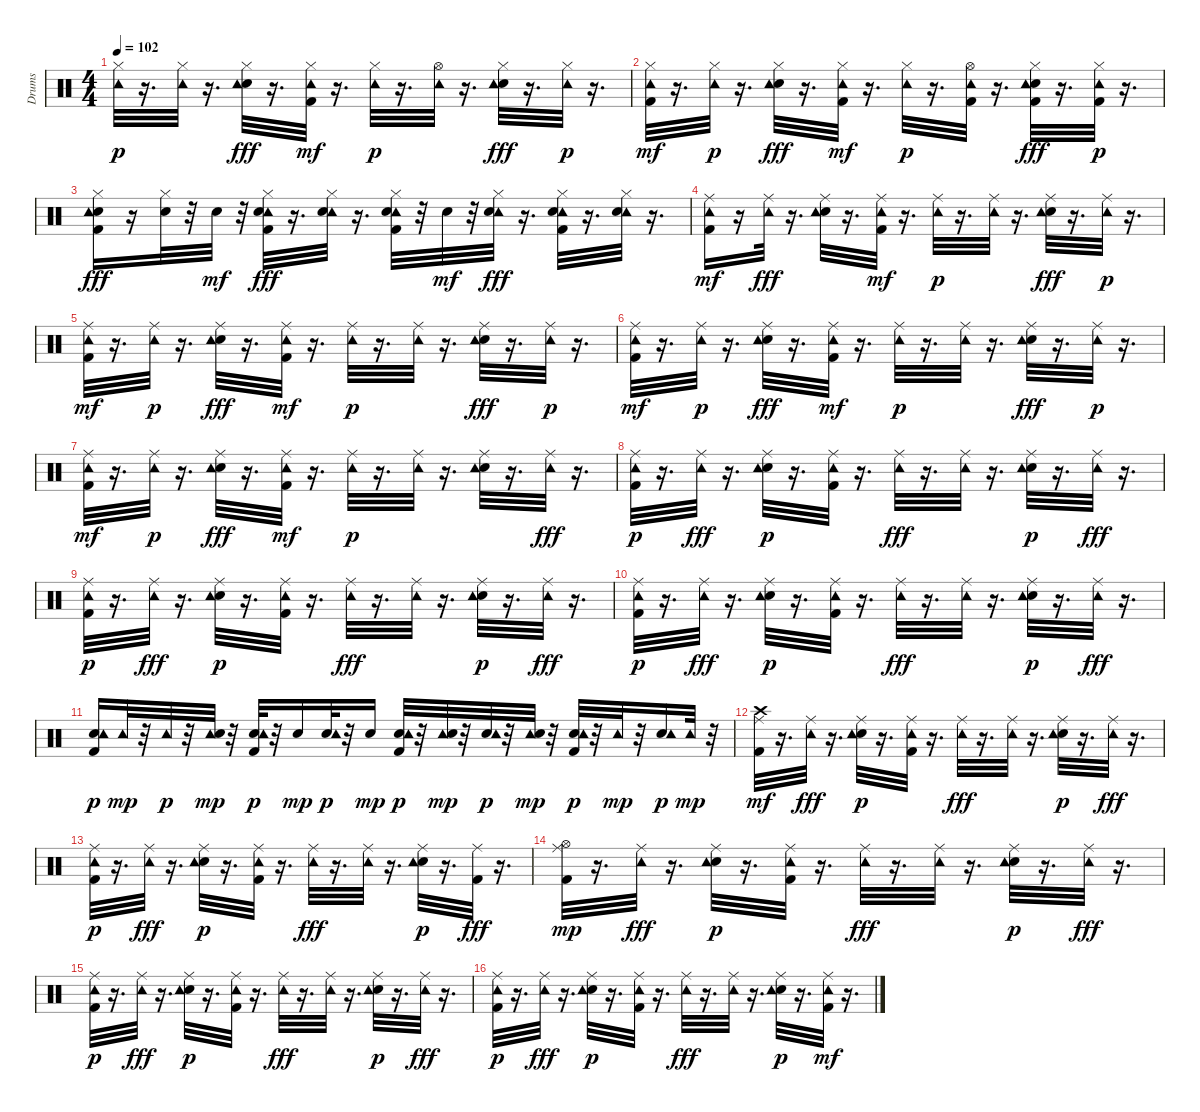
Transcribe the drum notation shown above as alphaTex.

\track ("Drums" "Drums") {instrument percussion}
\staff {score}
\articulation defaults
\ts (4 4)
\tempo 102
\clef neutral
\ks c
("Hi-Hat (closed)" "Tambourine (hit)").32{dy p} r.16{d} ("Hi-Hat (closed)" "Tambourine (hit)").32 r.16{d} ("Electric Snare (hit)" "Tambourine (hit)" "Hi-Hat (closed)").32{dy fff} r.16{d} ("Hi-Hat (closed)" "Tambourine (hit)" "Kick (hit) 2").32{dy mf} r.16{d} ("Hi-Hat (closed)" "Tambourine (hit)").32{dy p} r.16{d} ("Hi-Hat (open)" "Tambourine (hit)").32 r.16{d} ("Electric Snare (hit)" "Tambourine (hit)" "Hi-Hat (closed)").32{dy fff} r.16{d} ("Hi-Hat (closed)" "Tambourine (hit)").32{dy p} r.16{d} |
("Hi-Hat (closed)" "Tambourine (hit)" "Kick (hit) 2").32{dy mf} r.16{d} ("Hi-Hat (closed)" "Tambourine (hit)").32{dy p} r.16{d} ("Electric Snare (hit)" "Tambourine (hit)" "Hi-Hat (closed)").32{dy fff} r.16{d} ("Hi-Hat (closed)" "Tambourine (hit)" "Kick (hit) 2").32{dy mf} r.16{d} ("Hi-Hat (closed)" "Tambourine (hit)").32{dy p} r.16{d} ("Kick (hit) 2" "Hi-Hat (open)" "Tambourine (hit)").32 r.16{d} ("Kick (hit) 2" "Electric Snare (hit)" "Tambourine (hit)" "Hi-Hat (closed)").32{dy fff} r.16{d} ("Kick (hit) 2" "Hi-Hat (closed)" "Tambourine (hit)").32{dy p} r.16{d} |
("Electric Snare (hit)" "Kick (hit) 2" "Tambourine (hit)" "Hi-Hat (closed)").16{dy fff} r.16 ("Electric Snare (hit)" "Hi-Hat (closed)").32 r.32 "Electric Snare (hit)".32{dy mf} r.32 ("Kick (hit) 2" "Tambourine (hit)" "Electric Snare (hit)" "Hi-Hat (closed)").32{dy fff} r.16{d} ("Tambourine (hit)" "Electric Snare (hit)" "Hi-Hat (closed)").32 r.16{d} ("Kick (hit) 2" "Tambourine (hit)" "Electric Snare (hit)" "Hi-Hat (closed)").32 r.32 "Electric Snare (hit)".32{dy mf} r.32 ("Tambourine (hit)" "Electric Snare (hit)" "Hi-Hat (closed)").32{dy fff} r.16{d} ("Kick (hit) 2" "Tambourine (hit)" "Electric Snare (hit)" "Hi-Hat (closed)").32 r.16{d} ("Tambourine (hit)" "Electric Snare (hit)" "Hi-Hat (closed)").32 r.16{d} |
("Ride (middle)" "Tambourine (hit)" "Kick (hit) 2").16{dy mf} r.16 ("Tambourine (hit)" "Ride (middle)").32{dy fff} r.16{d} ("Electric Snare (hit)" "Tambourine (hit)" "Ride (middle)").32 r.16{d} ("Ride (middle)" "Tambourine (hit)" "Kick (hit) 2").32{dy mf} r.16{d} ("Ride (middle)" "Tambourine (hit)").32{dy p} r.16{d} ("Ride (middle)" "Tambourine (hit)").32 r.16{d} ("Electric Snare (hit)" "Tambourine (hit)" "Ride (middle)").32{dy fff} r.16{d} ("Ride (middle)" "Tambourine (hit)").32{dy p} r.16{d} |
("Ride (middle)" "Tambourine (hit)" "Kick (hit) 2").32{dy mf} r.16{d} ("Ride (middle)" "Tambourine (hit)").32{dy p} r.16{d} ("Electric Snare (hit)" "Tambourine (hit)" "Ride (middle)").32{dy fff} r.16{d} ("Ride (middle)" "Tambourine (hit)" "Kick (hit) 2").32{dy mf} r.16{d} ("Ride (middle)" "Tambourine (hit)").32{dy p} r.16{d} ("Ride (middle)" "Tambourine (hit)").32 r.16{d} ("Electric Snare (hit)" "Tambourine (hit)" "Ride (middle)").32{dy fff} r.16{d} ("Ride (middle)" "Tambourine (hit)").32{dy p} r.16{d} |
("Ride (middle)" "Tambourine (hit)" "Kick (hit) 2").32{dy mf} r.16{d} ("Ride (middle)" "Tambourine (hit)").32{dy p} r.16{d} ("Electric Snare (hit)" "Tambourine (hit)" "Ride (middle)").32{dy fff} r.16{d} ("Ride (middle)" "Tambourine (hit)" "Kick (hit) 2").32{dy mf} r.16{d} ("Ride (middle)" "Tambourine (hit)").32{dy p} r.16{d} ("Ride (middle)" "Tambourine (hit)").32 r.16{d} ("Electric Snare (hit)" "Tambourine (hit)" "Ride (middle)").32{dy fff} r.16{d} ("Ride (middle)" "Tambourine (hit)").32{dy p} r.16{d} |
("Ride (middle)" "Tambourine (hit)" "Kick (hit) 2").32{dy mf} r.16{d} ("Ride (middle)" "Tambourine (hit)").32{dy p} r.16{d} ("Electric Snare (hit)" "Tambourine (hit)" "Ride (middle)").32{dy fff} r.16{d} ("Ride (middle)" "Tambourine (hit)" "Kick (hit) 2").32{dy mf} r.16{d} ("Ride (middle)" "Tambourine (hit)").32{dy p} r.16{d} ("Ride (middle)" "Tambourine (hit)").32 r.16{d} ("Ride (middle)" "Electric Snare (hit)" "Tambourine (hit)").32 r.16{d} ("Tambourine (hit)" "Ride (middle)").32{dy fff} r.16{d} |
("Kick (hit) 2" "Ride (middle)" "Tambourine (hit)").32{dy p} r.16{d} ("Tambourine (hit)" "Ride (middle)").32{dy fff} r.16{d} ("Ride (middle)" "Electric Snare (hit)" "Tambourine (hit)").32{dy p} r.16{d} ("Kick (hit) 2" "Ride (middle)" "Tambourine (hit)").32 r.16{d} ("Tambourine (hit)" "Ride (middle)").32{dy fff} r.16{d} ("Tambourine (hit)" "Ride (middle)").32 r.16{d} ("Ride (middle)" "Electric Snare (hit)" "Tambourine (hit)").32{dy p} r.16{d} ("Tambourine (hit)" "Ride (middle)").32{dy fff} r.16{d} |
("Kick (hit) 2" "Ride (middle)" "Tambourine (hit)").32{dy p} r.16{d} ("Tambourine (hit)" "Ride (middle)").32{dy fff} r.16{d} ("Ride (middle)" "Electric Snare (hit)" "Tambourine (hit)").32{dy p} r.16{d} ("Kick (hit) 2" "Ride (middle)" "Tambourine (hit)").32 r.16{d} ("Tambourine (hit)" "Ride (middle)").32{dy fff} r.16{d} ("Tambourine (hit)" "Ride (middle)").32 r.16{d} ("Ride (middle)" "Electric Snare (hit)" "Tambourine (hit)").32{dy p} r.16{d} ("Tambourine (hit)" "Ride (middle)").32{dy fff} r.16{d} |
("Kick (hit) 2" "Ride (middle)" "Tambourine (hit)").32{dy p} r.16{d} ("Tambourine (hit)" "Ride (middle)").32{dy fff} r.16{d} ("Ride (middle)" "Electric Snare (hit)" "Tambourine (hit)").32{dy p} r.16{d} ("Kick (hit) 2" "Ride (middle)" "Tambourine (hit)").32 r.16{d} ("Tambourine (hit)" "Ride (middle)").32{dy fff} r.16{d} ("Tambourine (hit)" "Ride (middle)").32 r.16{d} ("Ride (middle)" "Electric Snare (hit)" "Tambourine (hit)").32{dy p} r.16{d} ("Tambourine (hit)" "Ride (middle)").32{dy fff} r.16{d} |
("Electric Snare (hit)" "Kick (hit) 2" "Tambourine (hit)").16{dy p} "Tambourine (hit)".32{dy mp} r.32 "Tambourine (hit)".32{dy p} r.32 ("Tambourine (hit)" "Electric Snare (hit)").32{dy mp} r.32 ("Kick (hit) 2" "Electric Snare (hit)" "Tambourine (hit)").32{dy p} r.32 "Electric Snare (hit)".16{dy mp} ("Electric Snare (hit)" "Tambourine (hit)").32{dy p} r.32 "Electric Snare (hit)".16{dy mp} ("Kick (hit) 2" "Electric Snare (hit)" "Tambourine (hit)").32{dy p} r.32 ("Tambourine (hit)" "Electric Snare (hit)").32{dy mp} r.32 ("Electric Snare (hit)" "Tambourine (hit)").32{dy p} r.32 ("Tambourine (hit)" "Electric Snare (hit)").32{dy mp} r.32 ("Kick (hit) 2" "Electric Snare (hit)" "Tambourine (hit)").32{dy p} r.32 "Tambourine (hit)".32{dy mp} r.32 ("Electric Snare (hit)" "Tambourine (hit)").16{dy p} "Tambourine (hit)".32{dy mp} r.32 |
("Kick (hit) 2" "Ride (middle)" "Crash high (hit)").32{dy mf} r.16{d} ("Tambourine (hit)" "Ride (middle)").32{dy fff} r.16{d} ("Ride (middle)" "Electric Snare (hit)" "Tambourine (hit)").32{dy p} r.16{d} ("Kick (hit) 2" "Ride (middle)" "Tambourine (hit)").32 r.16{d} ("Tambourine (hit)" "Ride (middle)").32{dy fff} r.16{d} ("Tambourine (hit)" "Ride (middle)").32 r.16{d} ("Ride (middle)" "Electric Snare (hit)" "Tambourine (hit)").32{dy p} r.16{d} ("Tambourine (hit)" "Ride (middle)").32{dy fff} r.16{d} |
("Kick (hit) 2" "Ride (middle)" "Tambourine (hit)").32{dy p} r.16{d} ("Tambourine (hit)" "Ride (middle)").32{dy fff} r.16{d} ("Ride (middle)" "Electric Snare (hit)" "Tambourine (hit)").32{dy p} r.16{d} ("Kick (hit) 2" "Ride (middle)" "Tambourine (hit)").32 r.16{d} ("Tambourine (hit)" "Ride (middle)").32{dy fff} r.16{d} ("Tambourine (hit)" "Ride (middle)").32 r.16{d} ("Ride (middle)" "Electric Snare (hit)" "Tambourine (hit)").32{dy p} r.16{d} ("Kick (hit) 2" "Ride (middle)").32{dy fff} r.16{d} |
("Kick (hit) 2" "Ride (middle)" "Hi-Hat (open)").32{dy mp} r.16{d} ("Tambourine (hit)" "Ride (middle)").32{dy fff} r.16{d} ("Ride (middle)" "Electric Snare (hit)" "Tambourine (hit)").32{dy p} r.16{d} ("Kick (hit) 2" "Ride (middle)" "Tambourine (hit)").32 r.16{d} ("Tambourine (hit)" "Ride (middle)").32{dy fff} r.16{d} ("Tambourine (hit)" "Ride (middle)").32 r.16{d} ("Ride (middle)" "Electric Snare (hit)" "Tambourine (hit)").32{dy p} r.16{d} ("Tambourine (hit)" "Ride (middle)").32{dy fff} r.16{d} |
("Kick (hit) 2" "Ride (middle)" "Tambourine (hit)").32{dy p} r.16{d} ("Tambourine (hit)" "Ride (middle)").32{dy fff} r.16{d} ("Ride (middle)" "Electric Snare (hit)" "Tambourine (hit)").32{dy p} r.16{d} ("Kick (hit) 2" "Ride (middle)" "Tambourine (hit)").32 r.16{d} ("Tambourine (hit)" "Ride (middle)").32{dy fff} r.16{d} ("Tambourine (hit)" "Ride (middle)").32 r.16{d} ("Ride (middle)" "Electric Snare (hit)" "Tambourine (hit)").32{dy p} r.16{d} ("Tambourine (hit)" "Ride (middle)").32{dy fff} r.16{d} |
("Kick (hit) 2" "Ride (middle)" "Tambourine (hit)").32{dy p} r.16{d} ("Tambourine (hit)" "Ride (middle)").32{dy fff} r.16{d} ("Ride (middle)" "Electric Snare (hit)" "Tambourine (hit)").32{dy p} r.16{d} ("Kick (hit) 2" "Ride (middle)" "Tambourine (hit)").32 r.16{d} ("Tambourine (hit)" "Ride (middle)").32{dy fff} r.16{d} ("Tambourine (hit)" "Ride (middle)").32 r.16{d} ("Ride (middle)" "Electric Snare (hit)" "Tambourine (hit)").32{dy p} r.16{d} ("Tambourine (hit)" "Ride (middle)" "Kick (hit) 2").32{dy mf} r.16{d}
